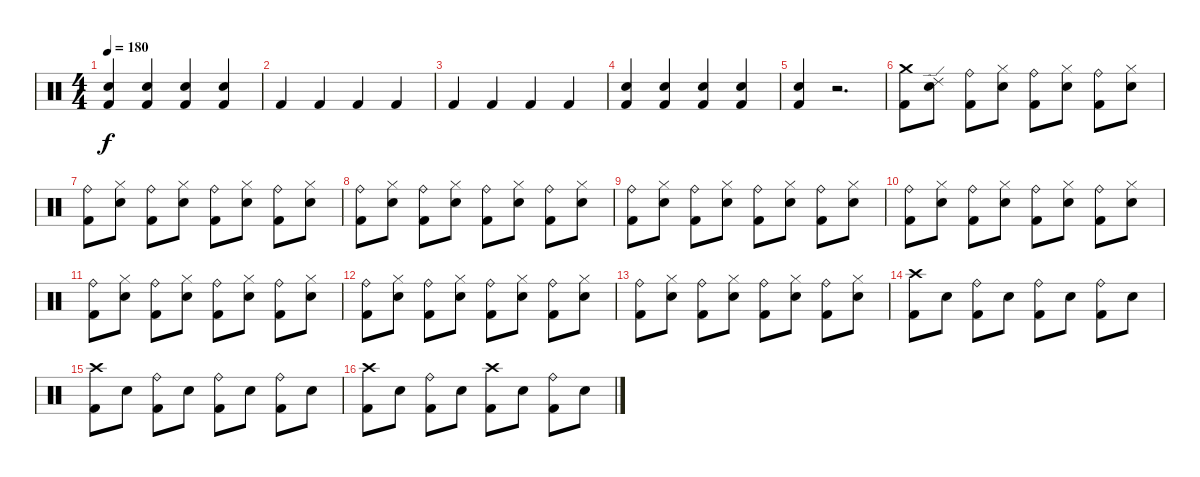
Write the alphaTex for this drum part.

\track "" {instrument percussion}
\staff {score}
\articulation defaults
\ts (4 4)
\tempo 180
\clef neutral
\ks c
("Kick (hit) 2" "Electric Snare (hit)").4{dy f} ("Kick (hit) 2" "Electric Snare (hit)").4 ("Kick (hit) 2" "Electric Snare (hit)").4 ("Kick (hit) 2" "Electric Snare (hit)").4 |
"Kick (hit) 2".4 "Kick (hit) 2".4 "Kick (hit) 2".4 "Kick (hit) 2".4 |
"Kick (hit) 2".4 "Kick (hit) 2".4 "Kick (hit) 2".4 "Kick (hit) 2".4 |
("Kick (hit) 2" "Electric Snare (hit)").4 ("Kick (hit) 2" "Electric Snare (hit)").4 ("Kick (hit) 2" "Electric Snare (hit)").4 ("Kick (hit) 2" "Electric Snare (hit)").4 |
("Kick (hit) 2" "Electric Snare (hit)").4 r.2{d} |
("Crash medium (hit)" "Kick (hit) 2").8 ("Ride (edge) 2" "Electric Snare (hit)").8 ("Ride (bell)" "Kick (hit) 2").8 ("Hi-Hat (closed)" "Electric Snare (hit)").8 ("Ride (bell)" "Kick (hit) 2").8 ("Hi-Hat (closed)" "Electric Snare (hit)").8 ("Ride (bell)" "Kick (hit) 2").8 ("Hi-Hat (closed)" "Electric Snare (hit)").8 |
("Ride (bell)" "Kick (hit) 2").8 ("Hi-Hat (closed)" "Electric Snare (hit)").8 ("Ride (bell)" "Kick (hit) 2").8 ("Hi-Hat (closed)" "Electric Snare (hit)").8 ("Ride (bell)" "Kick (hit) 2").8 ("Hi-Hat (closed)" "Electric Snare (hit)").8 ("Ride (bell)" "Kick (hit) 2").8 ("Hi-Hat (closed)" "Electric Snare (hit)").8 |
("Ride (bell)" "Kick (hit) 2").8 ("Hi-Hat (closed)" "Electric Snare (hit)").8 ("Ride (bell)" "Kick (hit) 2").8 ("Hi-Hat (closed)" "Electric Snare (hit)").8 ("Ride (bell)" "Kick (hit) 2").8 ("Hi-Hat (closed)" "Electric Snare (hit)").8 ("Ride (bell)" "Kick (hit) 2").8 ("Hi-Hat (closed)" "Electric Snare (hit)").8 |
("Ride (bell)" "Kick (hit) 2").8 ("Hi-Hat (closed)" "Electric Snare (hit)").8 ("Ride (bell)" "Kick (hit) 2").8 ("Hi-Hat (closed)" "Electric Snare (hit)").8 ("Ride (bell)" "Kick (hit) 2").8 ("Hi-Hat (closed)" "Electric Snare (hit)").8 ("Ride (bell)" "Kick (hit) 2").8 ("Hi-Hat (closed)" "Electric Snare (hit)").8 |
("Ride (bell)" "Kick (hit) 2").8 ("Hi-Hat (closed)" "Electric Snare (hit)").8 ("Ride (bell)" "Kick (hit) 2").8 ("Hi-Hat (closed)" "Electric Snare (hit)").8 ("Ride (bell)" "Kick (hit) 2").8 ("Hi-Hat (closed)" "Electric Snare (hit)").8 ("Ride (bell)" "Kick (hit) 2").8 ("Hi-Hat (closed)" "Electric Snare (hit)").8 |
("Ride (bell)" "Kick (hit) 2").8 ("Hi-Hat (closed)" "Electric Snare (hit)").8 ("Ride (bell)" "Kick (hit) 2").8 ("Hi-Hat (closed)" "Electric Snare (hit)").8 ("Ride (bell)" "Kick (hit) 2").8 ("Hi-Hat (closed)" "Electric Snare (hit)").8 ("Ride (bell)" "Kick (hit) 2").8 ("Hi-Hat (closed)" "Electric Snare (hit)").8 |
("Ride (bell)" "Kick (hit) 2").8 ("Hi-Hat (closed)" "Electric Snare (hit)").8 ("Ride (bell)" "Kick (hit) 2").8 ("Hi-Hat (closed)" "Electric Snare (hit)").8 ("Ride (bell)" "Kick (hit) 2").8 ("Hi-Hat (closed)" "Electric Snare (hit)").8 ("Ride (bell)" "Kick (hit) 2").8 ("Hi-Hat (closed)" "Electric Snare (hit)").8 |
("Ride (bell)" "Kick (hit) 2").8 ("Hi-Hat (closed)" "Electric Snare (hit)").8 ("Ride (bell)" "Kick (hit) 2").8 ("Hi-Hat (closed)" "Electric Snare (hit)").8 ("Ride (bell)" "Kick (hit) 2").8 ("Hi-Hat (closed)" "Electric Snare (hit)").8 ("Ride (bell)" "Kick (hit) 2").8 ("Hi-Hat (closed)" "Electric Snare (hit)").8 |
("Crash high (hit)" "Kick (hit) 2").8 "Electric Snare (hit)".8 ("Ride (bell)" "Kick (hit) 2").8 "Electric Snare (hit)".8 ("Ride (bell)" "Kick (hit) 2").8 "Electric Snare (hit)".8 ("Ride (bell)" "Kick (hit) 2").8 "Electric Snare (hit)".8 |
("Crash high (hit)" "Kick (hit) 2").8 "Electric Snare (hit)".8 ("Ride (bell)" "Kick (hit) 2").8 "Electric Snare (hit)".8 ("Ride (bell)" "Kick (hit) 2").8 "Electric Snare (hit)".8 ("Ride (bell)" "Kick (hit) 2").8 "Electric Snare (hit)".8 |
("Crash high (hit)" "Kick (hit) 2").8 "Electric Snare (hit)".8 ("Ride (bell)" "Kick (hit) 2").8 "Electric Snare (hit)".8 ("Crash high (hit)" "Kick (hit) 2").8 "Electric Snare (hit)".8 ("Ride (bell)" "Kick (hit) 2").8 "Electric Snare (hit)".8
